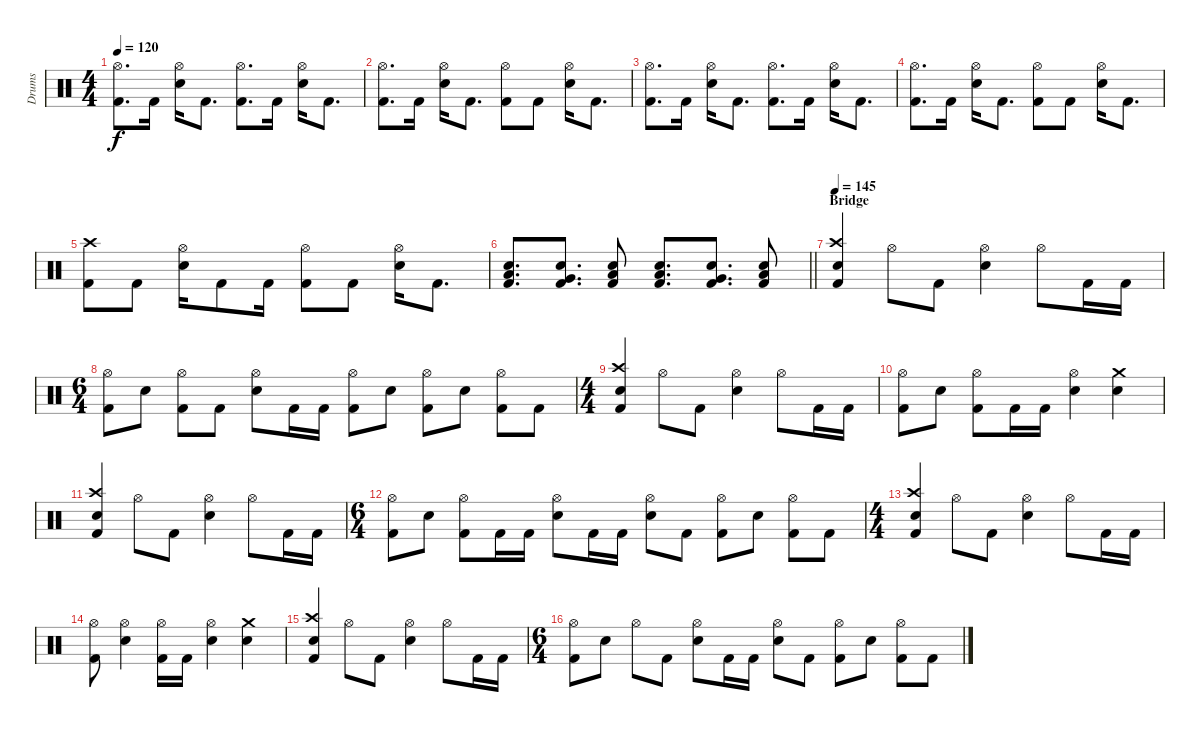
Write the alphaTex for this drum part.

\track ("Drums" "Drums") {instrument percussion}
\staff {score}
\articulation defaults
\ts (4 4)
\tempo 120
\clef neutral
\ks c
("Hi-Hat (open)" "Kick (hit) 2").8{d dy f} "Kick (hit) 2".16 ("Hi-Hat (open)" "Electric Snare (hit)").16 "Kick (hit) 2".8{d} ("Hi-Hat (open)" "Kick (hit) 2").8{d} "Kick (hit) 2".16 ("Hi-Hat (open)" "Electric Snare (hit)").16 "Kick (hit) 2".8{d} |
("Hi-Hat (open)" "Kick (hit) 2").8{d} "Kick (hit) 2".16 ("Hi-Hat (open)" "Electric Snare (hit)").16 "Kick (hit) 2".8{d} ("Hi-Hat (open)" "Kick (hit) 2").8 "Kick (hit) 2".8 ("Hi-Hat (open)" "Electric Snare (hit)").16 "Kick (hit) 2".8{d} |
("Hi-Hat (open)" "Kick (hit) 2").8{d} "Kick (hit) 2".16 ("Hi-Hat (open)" "Electric Snare (hit)").16 "Kick (hit) 2".8{d} ("Hi-Hat (open)" "Kick (hit) 2").8{d} "Kick (hit) 2".16 ("Hi-Hat (open)" "Electric Snare (hit)").16 "Kick (hit) 2".8{d} |
("Hi-Hat (open)" "Kick (hit) 2").8{d} "Kick (hit) 2".16 ("Hi-Hat (open)" "Electric Snare (hit)").16 "Kick (hit) 2".8{d} ("Hi-Hat (open)" "Kick (hit) 2").8 "Kick (hit) 2".8 ("Hi-Hat (open)" "Electric Snare (hit)").16 "Kick (hit) 2".8{d} |
("Crash high (hit)" "Kick (hit) 2").8 "Kick (hit) 2".8 ("Hi-Hat (open)" "Electric Snare (hit)").16 "Kick (hit) 2".8 "Kick (hit) 2".16 ("Hi-Hat (open)" "Kick (hit) 2").8 "Kick (hit) 2".8 ("Hi-Hat (open)" "Electric Snare (hit)").16 "Kick (hit) 2".8{d} |
\barLineRight lightlight
("Snare (hit) 2" "Low Tom (hit)" "Kick (hit) 2").8{d} ("Snare (hit) 2" "Very Low Tom (hit)" "Kick (hit) 2").8{d} ("Snare (hit) 2" "Low Floor Tom (hit)" "Kick (hit) 2").8 ("Snare (hit) 2" "Low Tom (hit)" "Kick (hit) 2").8{d} ("Snare (hit) 2" "Very Low Tom (hit)" "Kick (hit) 2").8{d} ("Snare (hit) 2" "Low Floor Tom (hit)" "Kick (hit) 2").8 |
\section ("" "Bridge")
\tempo 145
("Crash high (hit)" "Snare (hit) 2" "Kick (hit) 2").4 "Hi-Hat (open)".8 "Kick (hit) 2".8 ("Hi-Hat (open)" "Snare (hit) 2").4 "Hi-Hat (open)".8 "Kick (hit) 2".16 "Kick (hit) 2".16 |
\ts (6 4)
("Hi-Hat (open)" "Kick (hit) 2").8 "Snare (hit) 2".8 ("Hi-Hat (open)" "Kick (hit) 2").8 "Kick (hit) 2".8 ("Hi-Hat (open)" "Snare (hit) 2").8 "Kick (hit) 2".16 "Kick (hit) 2".16 ("Hi-Hat (open)" "Kick (hit) 2").8 "Snare (hit) 2".8 ("Hi-Hat (open)" "Kick (hit) 2").8 "Snare (hit) 2".8 ("Hi-Hat (open)" "Kick (hit) 2").8 "Kick (hit) 2".8 |
\ts (4 4)
("Crash high (hit)" "Snare (hit) 2" "Kick (hit) 2").4 "Hi-Hat (open)".8 "Kick (hit) 2".8 ("Hi-Hat (open)" "Snare (hit) 2").4 "Hi-Hat (open)".8 "Kick (hit) 2".16 "Kick (hit) 2".16 |
("Hi-Hat (open)" "Kick (hit) 2").8 "Snare (hit) 2".8 ("Hi-Hat (open)" "Kick (hit) 2").8 "Kick (hit) 2".16 "Kick (hit) 2".16 ("Hi-Hat (open)" "Snare (hit) 2").4 ("Crash medium (hit)" "Snare (hit) 2").4 |
("Crash high (hit)" "Snare (hit) 2" "Kick (hit) 2").4 "Hi-Hat (open)".8 "Kick (hit) 2".8 ("Hi-Hat (open)" "Snare (hit) 2").4 "Hi-Hat (open)".8 "Kick (hit) 2".16 "Kick (hit) 2".16 |
\ts (6 4)
("Hi-Hat (open)" "Kick (hit) 2").8 "Snare (hit) 2".8 ("Hi-Hat (open)" "Kick (hit) 2").8 "Kick (hit) 2".16 "Kick (hit) 2".16 ("Hi-Hat (open)" "Snare (hit) 2").8 "Kick (hit) 2".16 "Kick (hit) 2".16 ("Hi-Hat (open)" "Snare (hit) 2").8 "Kick (hit) 2".8 ("Hi-Hat (open)" "Kick (hit) 2").8 "Snare (hit) 2".8 ("Hi-Hat (open)" "Kick (hit) 2").8 "Kick (hit) 2".8 |
\ts (4 4)
("Crash high (hit)" "Snare (hit) 2" "Kick (hit) 2").4 "Hi-Hat (open)".8 "Kick (hit) 2".8 ("Hi-Hat (open)" "Snare (hit) 2").4 "Hi-Hat (open)".8 "Kick (hit) 2".16 "Kick (hit) 2".16 |
("Hi-Hat (open)" "Kick (hit) 2").8 ("Hi-Hat (open)" "Snare (hit) 2").4 ("Hi-Hat (open)" "Kick (hit) 2").16 "Kick (hit) 2".16 ("Hi-Hat (open)" "Snare (hit) 2").4 ("Crash medium (hit)" "Snare (hit) 2").4 |
("Crash high (hit)" "Snare (hit) 2" "Kick (hit) 2").4 "Hi-Hat (open)".8 "Kick (hit) 2".8 ("Hi-Hat (open)" "Snare (hit) 2").4 "Hi-Hat (open)".8 "Kick (hit) 2".16 "Kick (hit) 2".16 |
\ts (6 4)
("Hi-Hat (open)" "Kick (hit) 2").8 "Snare (hit) 2".8 "Hi-Hat (open)".8 "Kick (hit) 2".8 ("Hi-Hat (open)" "Snare (hit) 2").8 "Kick (hit) 2".16 "Kick (hit) 2".16 ("Hi-Hat (open)" "Snare (hit) 2").8 "Kick (hit) 2".8 ("Hi-Hat (open)" "Kick (hit) 2").8 "Snare (hit) 2".8 ("Hi-Hat (open)" "Kick (hit) 2").8 "Kick (hit) 2".8
